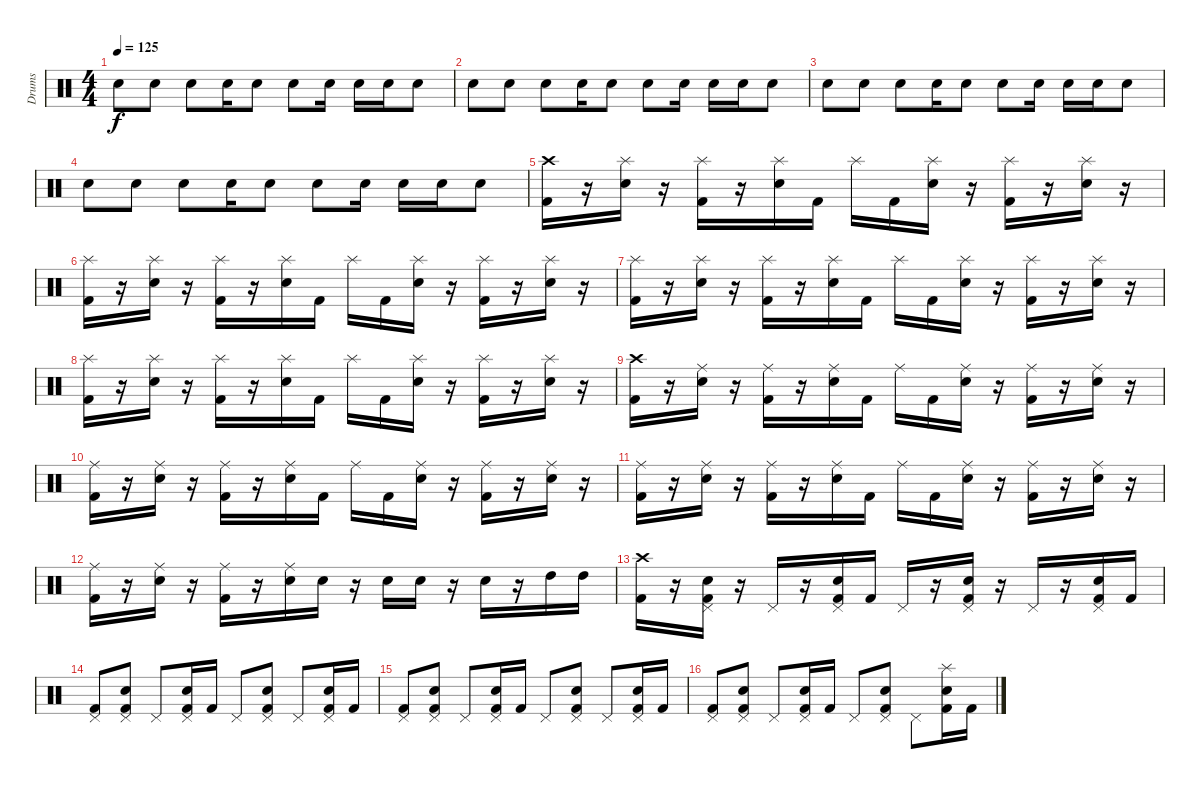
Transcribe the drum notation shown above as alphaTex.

\track ("Drums" "Drums") {instrument percussion}
\staff {score}
\articulation defaults
\ts (4 4)
\tempo 125
\clef neutral
\ks c "Electric Snare (hit)".8{dy f volume 10} "Electric Snare (hit)".8 "Electric Snare (hit)".8 "Electric Snare (hit)".16 "Electric Snare (hit)".8 "Electric Snare (hit)".8 "Electric Snare (hit)".16 "Electric Snare (hit)".16 "Electric Snare (hit)".16 "Electric Snare (hit)".8
|
"Electric Snare (hit)".8 "Electric Snare (hit)".8 "Electric Snare (hit)".8 "Electric Snare (hit)".16 "Electric Snare (hit)".8 "Electric Snare (hit)".8 "Electric Snare (hit)".16 "Electric Snare (hit)".16 "Electric Snare (hit)".16 "Electric Snare (hit)".8 |
"Electric Snare (hit)".8 "Electric Snare (hit)".8 "Electric Snare (hit)".8 "Electric Snare (hit)".16 "Electric Snare (hit)".8 "Electric Snare (hit)".8 "Electric Snare (hit)".16 "Electric Snare (hit)".16 "Electric Snare (hit)".16 "Electric Snare (hit)".8 |
"Electric Snare (hit)".8 "Electric Snare (hit)".8 "Electric Snare (hit)".8 "Electric Snare (hit)".16 "Electric Snare (hit)".8 "Electric Snare (hit)".8 "Electric Snare (hit)".16 "Electric Snare (hit)".16 "Electric Snare (hit)".16 "Electric Snare (hit)".8 |
("Crash high (hit)" "Kick (hit) 2").16{volume 14} r.16 ("Splash (hit)" "Electric Snare (hit)").16 r.16 ("Splash (hit)" "Kick (hit) 2").16 r.16 ("Splash (hit)" "Electric Snare (hit)").16 "Kick (hit) 2".16 "Splash (hit)".16 "Kick (hit) 2".16 ("Splash (hit)" "Electric Snare (hit)").16 r.16 ("Splash (hit)" "Kick (hit) 2").16 r.16 ("Splash (hit)" "Electric Snare (hit)").16 r.16 |
("Splash (hit)" "Kick (hit) 2").16{volume 14} r.16 ("Splash (hit)" "Electric Snare (hit)").16 r.16 ("Splash (hit)" "Kick (hit) 2").16 r.16 ("Splash (hit)" "Electric Snare (hit)").16 "Kick (hit) 2".16 "Splash (hit)".16 "Kick (hit) 2".16 ("Splash (hit)" "Electric Snare (hit)").16 r.16 ("Splash (hit)" "Kick (hit) 2").16 r.16 ("Splash (hit)" "Electric Snare (hit)").16 r.16 |
("Splash (hit)" "Kick (hit) 2").16{volume 14} r.16 ("Splash (hit)" "Electric Snare (hit)").16 r.16 ("Splash (hit)" "Kick (hit) 2").16 r.16 ("Splash (hit)" "Electric Snare (hit)").16 "Kick (hit) 2".16 "Splash (hit)".16 "Kick (hit) 2".16 ("Splash (hit)" "Electric Snare (hit)").16 r.16 ("Splash (hit)" "Kick (hit) 2").16 r.16 ("Splash (hit)" "Electric Snare (hit)").16 r.16 |
("Splash (hit)" "Kick (hit) 2").16{volume 14} r.16 ("Splash (hit)" "Electric Snare (hit)").16 r.16 ("Splash (hit)" "Kick (hit) 2").16 r.16 ("Splash (hit)" "Electric Snare (hit)").16 "Kick (hit) 2".16 "Splash (hit)".16 "Kick (hit) 2".16 ("Splash (hit)" "Electric Snare (hit)").16 r.16 ("Splash (hit)" "Kick (hit) 2").16 r.16 ("Splash (hit)" "Electric Snare (hit)").16 r.16 |
("Crash high (hit)" "Kick (hit) 2").16{volume 14} r.16 ("Ride (middle)" "Electric Snare (hit)").16 r.16 ("Ride (middle)" "Kick (hit) 2").16 r.16 ("Ride (middle)" "Electric Snare (hit)").16 "Kick (hit) 2".16 "Ride (middle)".16 "Kick (hit) 2".16 ("Ride (middle)" "Electric Snare (hit)").16 r.16 ("Ride (middle)" "Kick (hit) 2").16 r.16 ("Ride (middle)" "Electric Snare (hit)").16 r.16 |
("Ride (middle)" "Kick (hit) 2").16{volume 14} r.16 ("Ride (middle)" "Electric Snare (hit)").16 r.16 ("Ride (middle)" "Kick (hit) 2").16 r.16 ("Ride (middle)" "Electric Snare (hit)").16 "Kick (hit) 2".16 "Ride (middle)".16 "Kick (hit) 2".16 ("Ride (middle)" "Electric Snare (hit)").16 r.16 ("Ride (middle)" "Kick (hit) 2").16 r.16 ("Ride (middle)" "Electric Snare (hit)").16 r.16 |
("Ride (middle)" "Kick (hit) 2").16{volume 14} r.16 ("Ride (middle)" "Electric Snare (hit)").16 r.16 ("Ride (middle)" "Kick (hit) 2").16 r.16 ("Ride (middle)" "Electric Snare (hit)").16 "Kick (hit) 2".16 "Ride (middle)".16 "Kick (hit) 2".16 ("Ride (middle)" "Electric Snare (hit)").16 r.16 ("Ride (middle)" "Kick (hit) 2").16 r.16 ("Ride (middle)" "Electric Snare (hit)").16 r.16 |
("Ride (middle)" "Kick (hit) 2").16{volume 14} r.16 ("Ride (middle)" "Electric Snare (hit)").16 r.16 ("Ride (middle)" "Kick (hit) 2").16 r.16 ("Ride (middle)" "Electric Snare (hit)").16 "Snare (hit) 2".16 r.16 "Snare (hit) 2".16 "Snare (hit) 2".16 r.16 "Electric Snare (hit)".16 r.16 "High Tom (hit)".16 "High Tom (hit)".16 |
("Crash high (hit)" "Kick (hit) 2").16 r.16 ("Pedal Hi-Hat (hit)" "Electric Snare (hit)" "Kick (hit) 2").16 r.16 "Pedal Hi-Hat (hit)".16 r.16 ("Pedal Hi-Hat (hit)" "Electric Snare (hit)" "Kick (hit) 2").16 "Kick (hit) 2".16 "Pedal Hi-Hat (hit)".16 r.16 ("Pedal Hi-Hat (hit)" "Electric Snare (hit)" "Kick (hit) 2").16 r.16 "Pedal Hi-Hat (hit)".16 r.16 ("Pedal Hi-Hat (hit)" "Electric Snare (hit)" "Kick (hit) 2").16 "Kick (hit) 2".16 |
("Pedal Hi-Hat (hit)" "Kick (hit) 2").8 ("Pedal Hi-Hat (hit)" "Electric Snare (hit)" "Kick (hit) 2").8 "Pedal Hi-Hat (hit)".8 ("Pedal Hi-Hat (hit)" "Electric Snare (hit)" "Kick (hit) 2").16 "Kick (hit) 2".16 "Pedal Hi-Hat (hit)".8 ("Pedal Hi-Hat (hit)" "Electric Snare (hit)" "Kick (hit) 2").8 "Pedal Hi-Hat (hit)".8 ("Pedal Hi-Hat (hit)" "Electric Snare (hit)" "Kick (hit) 2").16 "Kick (hit) 2".16 |
("Pedal Hi-Hat (hit)" "Kick (hit) 2").8 ("Pedal Hi-Hat (hit)" "Electric Snare (hit)" "Kick (hit) 2").8 "Pedal Hi-Hat (hit)".8 ("Pedal Hi-Hat (hit)" "Electric Snare (hit)" "Kick (hit) 2").16 "Kick (hit) 2".16 "Pedal Hi-Hat (hit)".8 ("Pedal Hi-Hat (hit)" "Electric Snare (hit)" "Kick (hit) 2").8 "Pedal Hi-Hat (hit)".8 ("Pedal Hi-Hat (hit)" "Electric Snare (hit)" "Kick (hit) 2").16 "Kick (hit) 2".16 |
("Pedal Hi-Hat (hit)" "Kick (hit) 2").8 ("Pedal Hi-Hat (hit)" "Electric Snare (hit)" "Kick (hit) 2").8 "Pedal Hi-Hat (hit)".8 ("Pedal Hi-Hat (hit)" "Electric Snare (hit)" "Kick (hit) 2").16 "Kick (hit) 2".16 "Pedal Hi-Hat (hit)".8 ("Pedal Hi-Hat (hit)" "Electric Snare (hit)" "Kick (hit) 2").8 "Pedal Hi-Hat (hit)".8 ("Splash (hit)" "Electric Snare (hit)" "Kick (hit) 2").16 "Kick (hit) 2".16
